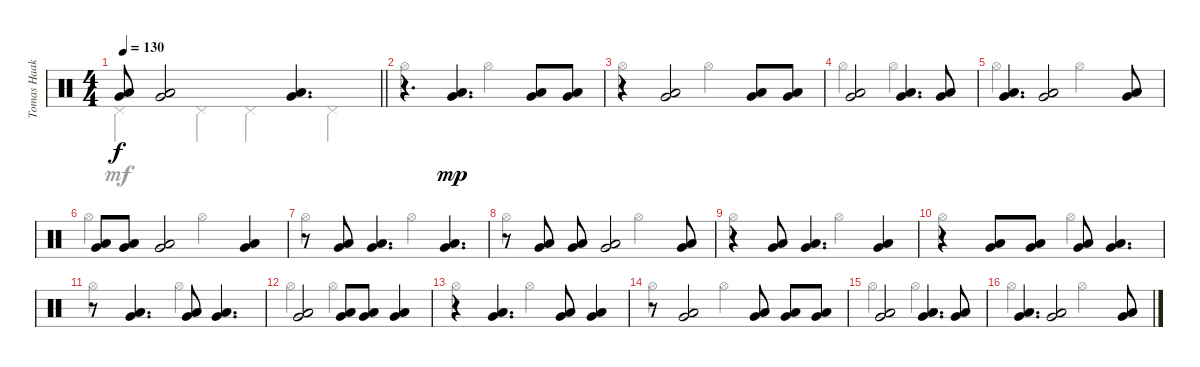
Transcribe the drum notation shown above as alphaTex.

\track ("Tomas Haake" "Tomas Haak") {instrument percussion}
\staff {score}
\articulation defaults
\voice
\ts (4 4)
\tempo 130
\clef neutral
\barLineRight lightlight
\ks c
("Very Low Tom (hit)" "Low Floor Tom (hit)").8{dy f} ("Very Low Tom (hit)" "Low Floor Tom (hit)").2 ("Very Low Tom (hit)" "Low Floor Tom (hit)").4{d} |
r.4{d} ("Very Low Tom (hit)" "Low Floor Tom (hit)").4{d dy mp} ("Very Low Tom (hit)" "Low Floor Tom (hit)").8 ("Very Low Tom (hit)" "Low Floor Tom (hit)").8 |
r.4 ("Very Low Tom (hit)" "Low Floor Tom (hit)").2 ("Very Low Tom (hit)" "Low Floor Tom (hit)").8 ("Very Low Tom (hit)" "Low Floor Tom (hit)").8 |
("Very Low Tom (hit)" "Low Floor Tom (hit)").2 ("Very Low Tom (hit)" "Low Floor Tom (hit)").4{d} ("Very Low Tom (hit)" "Low Floor Tom (hit)").8 |
("Very Low Tom (hit)" "Low Floor Tom (hit)").4{d} ("Very Low Tom (hit)" "Low Floor Tom (hit)").2 ("Very Low Tom (hit)" "Low Floor Tom (hit)").8 |
("Very Low Tom (hit)" "Low Floor Tom (hit)").8 ("Very Low Tom (hit)" "Low Floor Tom (hit)").8 ("Very Low Tom (hit)" "Low Floor Tom (hit)").2 ("Very Low Tom (hit)" "Low Floor Tom (hit)").4 |
r.8 ("Very Low Tom (hit)" "Low Floor Tom (hit)").8 ("Very Low Tom (hit)" "Low Floor Tom (hit)").4{d} ("Very Low Tom (hit)" "Low Floor Tom (hit)").4{d} |
r.8 ("Very Low Tom (hit)" "Low Floor Tom (hit)").8 ("Very Low Tom (hit)" "Low Floor Tom (hit)").8 ("Very Low Tom (hit)" "Low Floor Tom (hit)").2 ("Very Low Tom (hit)" "Low Floor Tom (hit)").8 |
r.4 ("Very Low Tom (hit)" "Low Floor Tom (hit)").8 ("Very Low Tom (hit)" "Low Floor Tom (hit)").4{d} ("Very Low Tom (hit)" "Low Floor Tom (hit)").4 |
r.4 ("Very Low Tom (hit)" "Low Floor Tom (hit)").8 ("Very Low Tom (hit)" "Low Floor Tom (hit)").8 ("Very Low Tom (hit)" "Low Floor Tom (hit)").8 ("Very Low Tom (hit)" "Low Floor Tom (hit)").4{d} |
r.8 ("Very Low Tom (hit)" "Low Floor Tom (hit)").4{d} ("Very Low Tom (hit)" "Low Floor Tom (hit)").8 ("Very Low Tom (hit)" "Low Floor Tom (hit)").4{d} |
("Very Low Tom (hit)" "Low Floor Tom (hit)").2 ("Very Low Tom (hit)" "Low Floor Tom (hit)").8 ("Very Low Tom (hit)" "Low Floor Tom (hit)").8 ("Very Low Tom (hit)" "Low Floor Tom (hit)").4 |
r.4 ("Very Low Tom (hit)" "Low Floor Tom (hit)").4{d} ("Very Low Tom (hit)" "Low Floor Tom (hit)").8 ("Very Low Tom (hit)" "Low Floor Tom (hit)").4 |
r.8 ("Very Low Tom (hit)" "Low Floor Tom (hit)").2 ("Very Low Tom (hit)" "Low Floor Tom (hit)").8 ("Very Low Tom (hit)" "Low Floor Tom (hit)").8 ("Very Low Tom (hit)" "Low Floor Tom (hit)").8 |
("Very Low Tom (hit)" "Low Floor Tom (hit)").2 ("Very Low Tom (hit)" "Low Floor Tom (hit)").4{d} ("Very Low Tom (hit)" "Low Floor Tom (hit)").8 |
("Very Low Tom (hit)" "Low Floor Tom (hit)").4{d} ("Very Low Tom (hit)" "Low Floor Tom (hit)").2 ("Very Low Tom (hit)" "Low Floor Tom (hit)").8
\voice
\clef neutral
\ottava regular
\simile none
\barLineRight lightlight
\ks c "Pedal Hi-Hat (hit)".4{dy mf} "Pedal Hi-Hat (hit)".4 "Pedal Hi-Hat (hit)".4 "Pedal Hi-Hat (hit)".4
|
"Hi-Hat (open)".2 "Hi-Hat (open)".2 |
"Hi-Hat (open)".2 "Hi-Hat (open)".2 |
"Hi-Hat (open)".2 "Hi-Hat (open)".2 |
"Hi-Hat (open)".2 "Hi-Hat (open)".2 |
"Hi-Hat (open)".2 "Hi-Hat (open)".2 |
"Hi-Hat (open)".2 "Hi-Hat (open)".2 |
"Hi-Hat (open)".2 "Hi-Hat (open)".2 |
"Hi-Hat (open)".2 "Hi-Hat (open)".2 |
"Hi-Hat (open)".2 "Hi-Hat (open)".2 |
"Hi-Hat (open)".2 "Hi-Hat (open)".2 |
"Hi-Hat (open)".2 "Hi-Hat (open)".2 |
"Hi-Hat (open)".2 "Hi-Hat (open)".2 |
"Hi-Hat (open)".2 "Hi-Hat (open)".2 |
"Hi-Hat (open)".2 "Hi-Hat (open)".2 |
"Hi-Hat (open)".2 "Hi-Hat (open)".2
